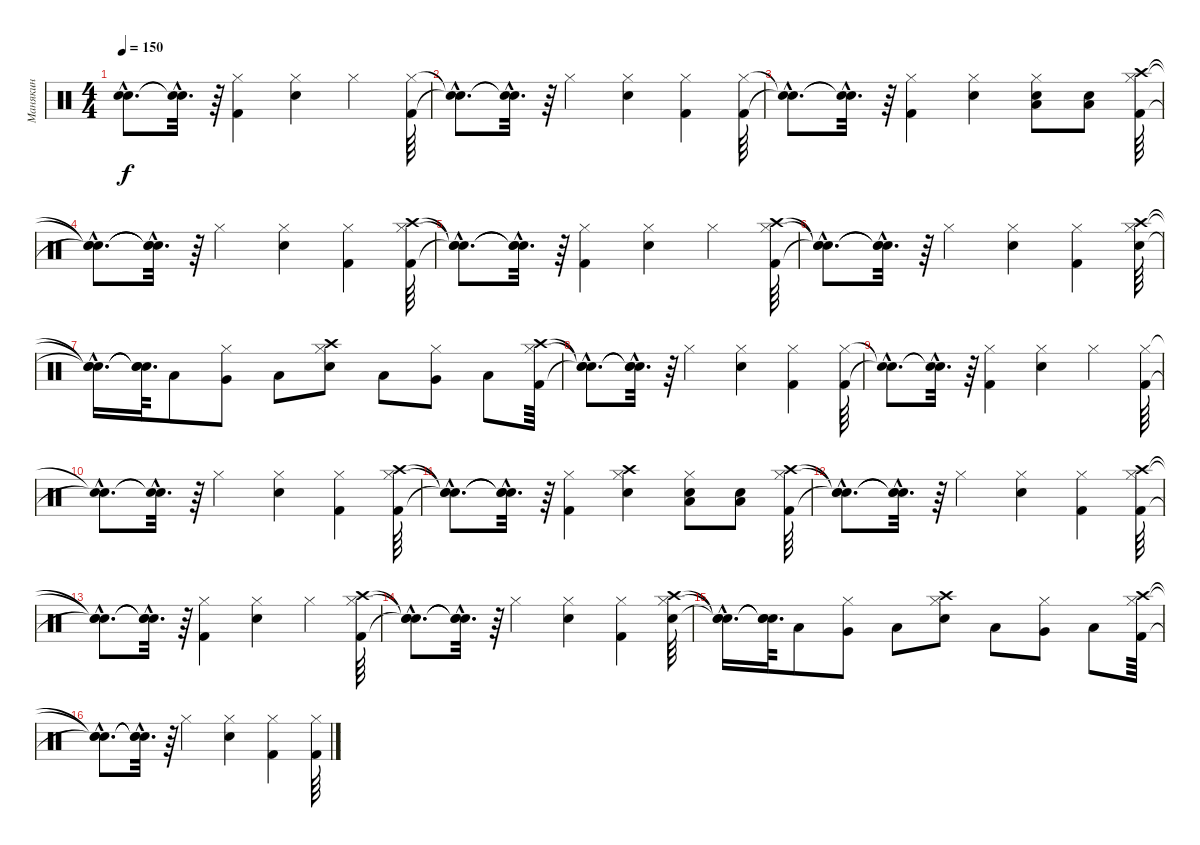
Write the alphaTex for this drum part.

\track ("Манякин" "Манякин") {instrument percussion}
\staff {score}
\articulation defaults
\ts (4 4)
\tempo 150
\clef neutral
\ks c
("Snare (hit)"{hac t} "Snare (hit)"{hac t}).8{d dy f} ("Snare (hit)"{hac t} "Snare (hit)"{hac t}).32{d} r.64 ("Hi-Hat (closed)" "Kick (hit) 2").4 ("Hi-Hat (closed)" "Snare (hit) 2").4 "Hi-Hat (closed)".4 ("Hi-Hat (closed)" "Kick (hit) 2").64 |
("Snare (hit)"{hac t} "Snare (hit)"{hac t}).8{d} ("Snare (hit)"{hac t} "Snare (hit)"{hac t}).32{d} r.64 "Hi-Hat (closed)".4 ("Hi-Hat (closed)" "Snare (hit) 2").4 ("Hi-Hat (closed)" "Kick (hit) 2").4 ("Hi-Hat (closed)" "Kick (hit) 2").64 |
("Snare (hit)"{hac t} "Snare (hit)"{hac t}).8{d} ("Snare (hit)"{hac t} "Snare (hit)"{hac t}).32{d} r.64 ("Hi-Hat (closed)" "Kick (hit) 2").4 ("Hi-Hat (closed)" "Snare (hit) 2").4 ("Low Floor Tom (hit)" "Snare (hit) 2" "Hi-Hat (closed)").8 ("Low Floor Tom (hit)" "Snare (hit) 2").8 ("Crash high (hit)" "Hi-Hat (closed)" "Kick (hit) 2").64 |
("Snare (hit)"{hac t} "Snare (hit)"{hac t} "Snare (hit)"{hac t}).8{d} ("Snare (hit)"{hac t} "Snare (hit)"{hac t} "Snare (hit)"{hac t}).32{d} r.64 "Hi-Hat (closed)".4 ("Hi-Hat (closed)" "Snare (hit) 2").4 ("Hi-Hat (closed)" "Kick (hit) 2").4 ("Crash high (hit)" "Hi-Hat (closed)" "Kick (hit) 2").64 |
("Snare (hit)"{hac t} "Snare (hit)"{hac t} "Snare (hit)"{hac t}).8{d} ("Snare (hit)"{hac t} "Snare (hit)"{hac t} "Snare (hit)"{hac t}).32{d} r.64 ("Hi-Hat (closed)" "Kick (hit) 2").4 ("Hi-Hat (closed)" "Snare (hit) 2").4 "Hi-Hat (closed)".4 ("Crash high (hit)" "Hi-Hat (closed)" "Kick (hit) 2").64 |
("Snare (hit)"{hac t} "Snare (hit)"{hac t} "Snare (hit)"{hac t}).8{d} ("Snare (hit)"{hac t} "Snare (hit)"{hac t} "Snare (hit)"{hac t}).32{d} r.64 "Hi-Hat (closed)".4 ("Hi-Hat (closed)" "Snare (hit) 2").4 ("Hi-Hat (closed)" "Kick (hit) 2").4 ("Crash high (hit)" "Snare (hit) 2" "Hi-Hat (closed)").64 |
("Snare (hit)"{hac t} "Snare (hit)"{hac t} "Snare (hit)"{hac t}).16{d} ("Snare (hit)"{t} "Snare (hit)"{t} "Snare (hit)"{t}).64{d} "Low Tom (hit)".8 ("Hi-Hat (closed)" "Very Low Tom (hit)").8 "Low Floor Tom (hit)".8 ("Crash high (hit)" "Snare (hit) 2" "Hi-Hat (closed)").8 "Low Floor Tom (hit)".8 ("Very Low Tom (hit)" "Hi-Hat (closed)").8 "Low Tom (hit)".8 ("Crash high (hit)" "Hi-Hat (closed)" "Kick (hit) 2").64 |
("Snare (hit)"{hac t} "Snare (hit)"{hac t} "Snare (hit)"{hac t}).8{d} ("Snare (hit)"{hac t} "Snare (hit)"{hac t} "Snare (hit)"{hac t}).32{d} r.64 "Hi-Hat (closed)".4 ("Hi-Hat (closed)" "Snare (hit) 2").4 ("Hi-Hat (closed)" "Kick (hit) 2").4 ("Hi-Hat (closed)" "Kick (hit) 2").64 |
("Snare (hit)"{hac t} "Snare (hit)"{hac t}).8{d} ("Snare (hit)"{hac t} "Snare (hit)"{hac t}).32{d} r.64 ("Hi-Hat (closed)" "Kick (hit) 2").4 ("Hi-Hat (closed)" "Snare (hit) 2").4 "Hi-Hat (closed)".4 ("Hi-Hat (closed)" "Kick (hit) 2").64 |
("Snare (hit)"{hac t} "Snare (hit)"{hac t}).8{d} ("Snare (hit)"{hac t} "Snare (hit)"{hac t}).32{d} r.64 "Hi-Hat (closed)".4 ("Hi-Hat (closed)" "Snare (hit) 2").4 ("Hi-Hat (closed)" "Kick (hit) 2").4 ("Crash high (hit)" "Hi-Hat (closed)" "Kick (hit) 2").64 |
("Snare (hit)"{hac t} "Snare (hit)"{hac t} "Snare (hit)"{hac t}).8{d} ("Snare (hit)"{hac t} "Snare (hit)"{hac t} "Snare (hit)"{hac t}).32{d} r.64 ("Hi-Hat (closed)" "Kick (hit) 2").4 ("Crash high (hit)" "Hi-Hat (closed)" "Snare (hit) 2").4 ("Low Floor Tom (hit)" "Snare (hit) 2" "Hi-Hat (closed)").8 ("Low Floor Tom (hit)" "Snare (hit) 2").8 ("Crash high (hit)" "Hi-Hat (closed)" "Kick (hit) 2").64 |
("Snare (hit)"{hac t} "Snare (hit)"{hac t} "Snare (hit)"{hac t}).8{d} ("Snare (hit)"{hac t} "Snare (hit)"{hac t} "Snare (hit)"{hac t}).32{d} r.64 "Hi-Hat (closed)".4 ("Hi-Hat (closed)" "Snare (hit) 2").4 ("Hi-Hat (closed)" "Kick (hit) 2").4 ("Crash high (hit)" "Hi-Hat (closed)" "Kick (hit) 2").64 |
("Snare (hit)"{hac t} "Snare (hit)"{hac t} "Snare (hit)"{hac t}).8{d} ("Snare (hit)"{hac t} "Snare (hit)"{hac t} "Snare (hit)"{hac t}).32{d} r.64 ("Hi-Hat (closed)" "Kick (hit) 2").4 ("Hi-Hat (closed)" "Snare (hit) 2").4 "Hi-Hat (closed)".4 ("Crash high (hit)" "Hi-Hat (closed)" "Kick (hit) 2").64 |
("Snare (hit)"{hac t} "Snare (hit)"{hac t} "Snare (hit)"{hac t}).8{d} ("Snare (hit)"{hac t} "Snare (hit)"{hac t} "Snare (hit)"{hac t}).32{d} r.64 "Hi-Hat (closed)".4 ("Hi-Hat (closed)" "Snare (hit) 2").4 ("Hi-Hat (closed)" "Kick (hit) 2").4 ("Crash high (hit)" "Snare (hit) 2" "Hi-Hat (closed)").64 |
("Snare (hit)"{hac t} "Snare (hit)"{hac t} "Snare (hit)"{hac t}).16{d} ("Snare (hit)"{t} "Snare (hit)"{t} "Snare (hit)"{t}).64{d} "Low Tom (hit)".8 ("Hi-Hat (closed)" "Very Low Tom (hit)").8 "Low Floor Tom (hit)".8 ("Crash high (hit)" "Snare (hit) 2" "Hi-Hat (closed)").8 "Low Floor Tom (hit)".8 ("Very Low Tom (hit)" "Hi-Hat (closed)").8 "Low Tom (hit)".8 ("Crash high (hit)" "Hi-Hat (closed)" "Kick (hit) 2").64 |
("Snare (hit)"{hac t} "Snare (hit)"{hac t} "Snare (hit)"{hac t}).8{d} ("Snare (hit)"{hac t} "Snare (hit)"{hac t} "Snare (hit)"{hac t}).32{d} r.64 "Hi-Hat (closed)".4 ("Hi-Hat (closed)" "Snare (hit) 2").4 ("Hi-Hat (closed)" "Kick (hit) 2").4 ("Hi-Hat (closed)" "Kick (hit) 2").64
